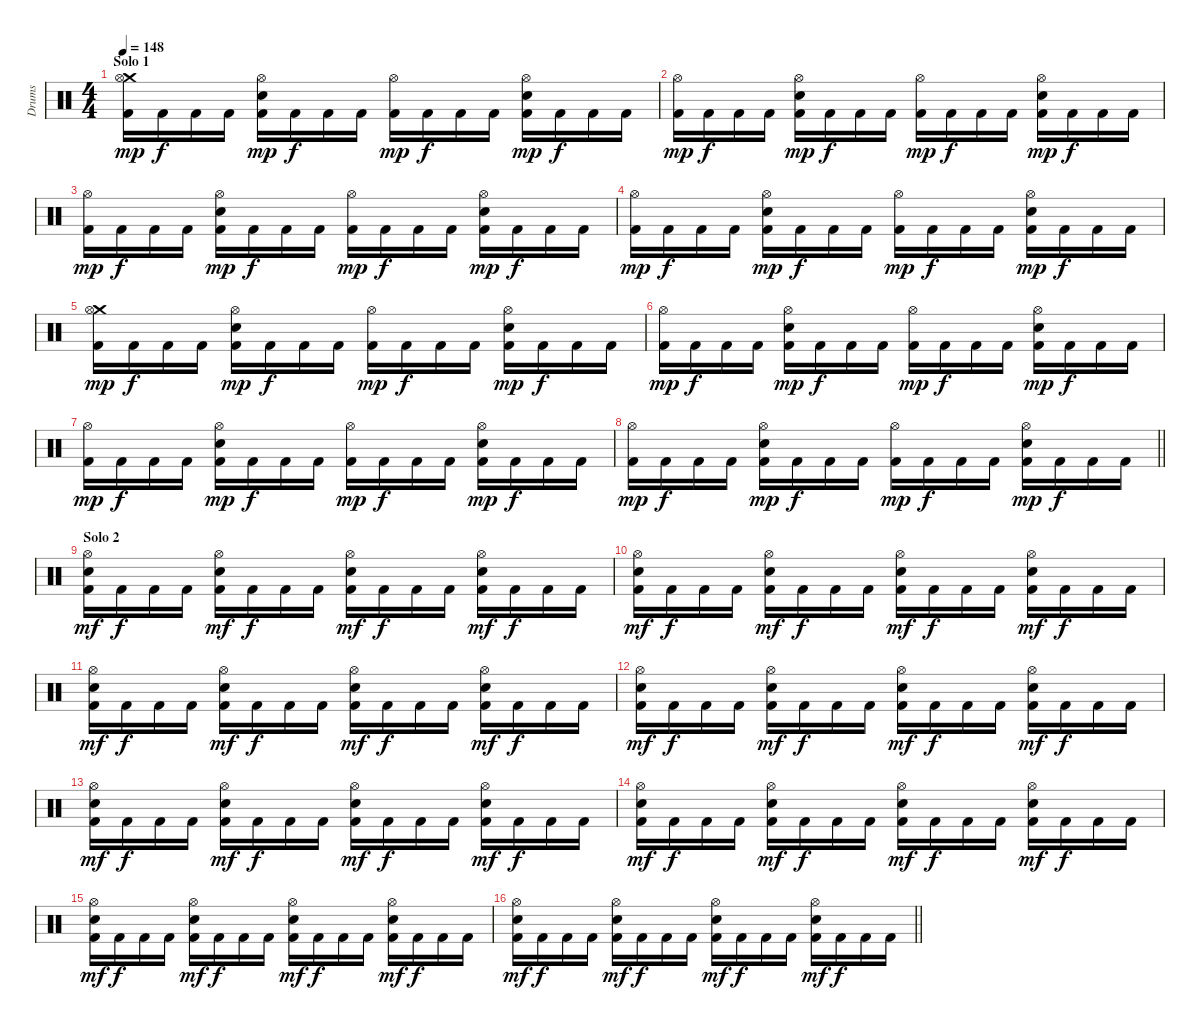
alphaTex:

\track ("Drums" "Drums") {instrument percussion}
\staff {score}
\articulation defaults
\ts (4 4)
\section ("" "Solo 1")
\tempo 148
\clef neutral
\ks c
("Crash medium (hit)" "Hi-Hat (open)" "Kick (hit) 2").16{dy mp} "Kick (hit) 2".16{dy f} "Kick (hit) 2".16 "Kick (hit) 2".16 ("Hi-Hat (open)" "Snare (hit) 2" "Kick (hit) 2").16{dy mp} "Kick (hit) 2".16{dy f} "Kick (hit) 2".16{beam merge} "Kick (hit) 2".16 ("Hi-Hat (open)" "Kick (hit) 2").16{dy mp} "Kick (hit) 2".16{dy f beam merge} "Kick (hit) 2".16 "Kick (hit) 2".16 ("Hi-Hat (open)" "Snare (hit) 2" "Kick (hit) 2").16{dy mp beam merge} "Kick (hit) 2".16{dy f beam merge} "Kick (hit) 2".16 "Kick (hit) 2".16 |
("Hi-Hat (open)" "Kick (hit) 2").16{dy mp} "Kick (hit) 2".16{dy f} "Kick (hit) 2".16 "Kick (hit) 2".16 ("Hi-Hat (open)" "Snare (hit) 2" "Kick (hit) 2").16{dy mp} "Kick (hit) 2".16{dy f} "Kick (hit) 2".16{beam merge} "Kick (hit) 2".16 ("Hi-Hat (open)" "Kick (hit) 2").16{dy mp} "Kick (hit) 2".16{dy f beam merge} "Kick (hit) 2".16 "Kick (hit) 2".16 ("Hi-Hat (open)" "Snare (hit) 2" "Kick (hit) 2").16{dy mp beam merge} "Kick (hit) 2".16{dy f beam merge} "Kick (hit) 2".16 "Kick (hit) 2".16 |
("Hi-Hat (open)" "Kick (hit) 2").16{dy mp} "Kick (hit) 2".16{dy f} "Kick (hit) 2".16 "Kick (hit) 2".16 ("Hi-Hat (open)" "Snare (hit) 2" "Kick (hit) 2").16{dy mp} "Kick (hit) 2".16{dy f} "Kick (hit) 2".16{beam merge} "Kick (hit) 2".16 ("Hi-Hat (open)" "Kick (hit) 2").16{dy mp} "Kick (hit) 2".16{dy f beam merge} "Kick (hit) 2".16 "Kick (hit) 2".16 ("Hi-Hat (open)" "Snare (hit) 2" "Kick (hit) 2").16{dy mp beam merge} "Kick (hit) 2".16{dy f beam merge} "Kick (hit) 2".16 "Kick (hit) 2".16 |
("Hi-Hat (open)" "Kick (hit) 2").16{dy mp} "Kick (hit) 2".16{dy f} "Kick (hit) 2".16 "Kick (hit) 2".16 ("Hi-Hat (open)" "Snare (hit) 2" "Kick (hit) 2").16{dy mp} "Kick (hit) 2".16{dy f} "Kick (hit) 2".16{beam merge} "Kick (hit) 2".16 ("Hi-Hat (open)" "Kick (hit) 2").16{dy mp} "Kick (hit) 2".16{dy f beam merge} "Kick (hit) 2".16 "Kick (hit) 2".16 ("Hi-Hat (open)" "Snare (hit) 2" "Kick (hit) 2").16{dy mp beam merge} "Kick (hit) 2".16{dy f beam merge} "Kick (hit) 2".16 "Kick (hit) 2".16 |
("Crash medium (hit)" "Hi-Hat (open)" "Kick (hit) 2").16{dy mp} "Kick (hit) 2".16{dy f} "Kick (hit) 2".16 "Kick (hit) 2".16 ("Hi-Hat (open)" "Snare (hit) 2" "Kick (hit) 2").16{dy mp} "Kick (hit) 2".16{dy f} "Kick (hit) 2".16{beam merge} "Kick (hit) 2".16 ("Hi-Hat (open)" "Kick (hit) 2").16{dy mp} "Kick (hit) 2".16{dy f beam merge} "Kick (hit) 2".16 "Kick (hit) 2".16 ("Hi-Hat (open)" "Snare (hit) 2" "Kick (hit) 2").16{dy mp beam merge} "Kick (hit) 2".16{dy f beam merge} "Kick (hit) 2".16 "Kick (hit) 2".16 |
("Hi-Hat (open)" "Kick (hit) 2").16{dy mp} "Kick (hit) 2".16{dy f} "Kick (hit) 2".16 "Kick (hit) 2".16 ("Hi-Hat (open)" "Snare (hit) 2" "Kick (hit) 2").16{dy mp} "Kick (hit) 2".16{dy f} "Kick (hit) 2".16{beam merge} "Kick (hit) 2".16 ("Hi-Hat (open)" "Kick (hit) 2").16{dy mp} "Kick (hit) 2".16{dy f beam merge} "Kick (hit) 2".16 "Kick (hit) 2".16 ("Hi-Hat (open)" "Snare (hit) 2" "Kick (hit) 2").16{dy mp beam merge} "Kick (hit) 2".16{dy f beam merge} "Kick (hit) 2".16 "Kick (hit) 2".16 |
("Hi-Hat (open)" "Kick (hit) 2").16{dy mp} "Kick (hit) 2".16{dy f} "Kick (hit) 2".16 "Kick (hit) 2".16 ("Hi-Hat (open)" "Snare (hit) 2" "Kick (hit) 2").16{dy mp} "Kick (hit) 2".16{dy f} "Kick (hit) 2".16{beam merge} "Kick (hit) 2".16 ("Hi-Hat (open)" "Kick (hit) 2").16{dy mp} "Kick (hit) 2".16{dy f beam merge} "Kick (hit) 2".16 "Kick (hit) 2".16 ("Hi-Hat (open)" "Snare (hit) 2" "Kick (hit) 2").16{dy mp beam merge} "Kick (hit) 2".16{dy f beam merge} "Kick (hit) 2".16 "Kick (hit) 2".16 |
\barLineRight lightlight
("Hi-Hat (open)" "Kick (hit) 2").16{dy mp} "Kick (hit) 2".16{dy f} "Kick (hit) 2".16 "Kick (hit) 2".16 ("Hi-Hat (open)" "Snare (hit) 2" "Kick (hit) 2").16{dy mp} "Kick (hit) 2".16{dy f} "Kick (hit) 2".16{beam merge} "Kick (hit) 2".16 ("Hi-Hat (open)" "Kick (hit) 2").16{dy mp} "Kick (hit) 2".16{dy f beam merge} "Kick (hit) 2".16 "Kick (hit) 2".16 ("Hi-Hat (open)" "Snare (hit) 2" "Kick (hit) 2").16{dy mp beam merge} "Kick (hit) 2".16{dy f beam merge} "Kick (hit) 2".16 "Kick (hit) 2".16 |
\section ("" "Solo 2")
("Hi-Hat (open)" "Snare (hit) 2" "Kick (hit) 2").16{dy mf} "Kick (hit) 2".16{dy f} "Kick (hit) 2".16 "Kick (hit) 2".16 ("Hi-Hat (open)" "Snare (hit) 2" "Kick (hit) 2").16{dy mf} "Kick (hit) 2".16{dy f beam merge} "Kick (hit) 2".16 "Kick (hit) 2".16 ("Hi-Hat (open)" "Snare (hit) 2" "Kick (hit) 2").16{dy mf} "Kick (hit) 2".16{dy f beam merge} "Kick (hit) 2".16 "Kick (hit) 2".16 ("Hi-Hat (open)" "Snare (hit) 2" "Kick (hit) 2").16{dy mf} "Kick (hit) 2".16{dy f beam merge} "Kick (hit) 2".16 "Kick (hit) 2".16 |
("Hi-Hat (open)" "Snare (hit) 2" "Kick (hit) 2").16{dy mf} "Kick (hit) 2".16{dy f} "Kick (hit) 2".16 "Kick (hit) 2".16 ("Hi-Hat (open)" "Snare (hit) 2" "Kick (hit) 2").16{dy mf} "Kick (hit) 2".16{dy f beam merge} "Kick (hit) 2".16 "Kick (hit) 2".16 ("Hi-Hat (open)" "Snare (hit) 2" "Kick (hit) 2").16{dy mf} "Kick (hit) 2".16{dy f beam merge} "Kick (hit) 2".16 "Kick (hit) 2".16 ("Hi-Hat (open)" "Snare (hit) 2" "Kick (hit) 2").16{dy mf} "Kick (hit) 2".16{dy f beam merge} "Kick (hit) 2".16 "Kick (hit) 2".16 |
("Hi-Hat (open)" "Snare (hit) 2" "Kick (hit) 2").16{dy mf} "Kick (hit) 2".16{dy f} "Kick (hit) 2".16 "Kick (hit) 2".16 ("Hi-Hat (open)" "Snare (hit) 2" "Kick (hit) 2").16{dy mf} "Kick (hit) 2".16{dy f beam merge} "Kick (hit) 2".16 "Kick (hit) 2".16 ("Hi-Hat (open)" "Snare (hit) 2" "Kick (hit) 2").16{dy mf} "Kick (hit) 2".16{dy f beam merge} "Kick (hit) 2".16 "Kick (hit) 2".16 ("Hi-Hat (open)" "Snare (hit) 2" "Kick (hit) 2").16{dy mf} "Kick (hit) 2".16{dy f beam merge} "Kick (hit) 2".16 "Kick (hit) 2".16 |
("Hi-Hat (open)" "Snare (hit) 2" "Kick (hit) 2").16{dy mf} "Kick (hit) 2".16{dy f} "Kick (hit) 2".16 "Kick (hit) 2".16 ("Hi-Hat (open)" "Snare (hit) 2" "Kick (hit) 2").16{dy mf} "Kick (hit) 2".16{dy f beam merge} "Kick (hit) 2".16 "Kick (hit) 2".16 ("Hi-Hat (open)" "Snare (hit) 2" "Kick (hit) 2").16{dy mf} "Kick (hit) 2".16{dy f beam merge} "Kick (hit) 2".16 "Kick (hit) 2".16 ("Hi-Hat (open)" "Snare (hit) 2" "Kick (hit) 2").16{dy mf} "Kick (hit) 2".16{dy f beam merge} "Kick (hit) 2".16 "Kick (hit) 2".16 |
("Hi-Hat (open)" "Snare (hit) 2" "Kick (hit) 2").16{dy mf} "Kick (hit) 2".16{dy f} "Kick (hit) 2".16 "Kick (hit) 2".16 ("Hi-Hat (open)" "Snare (hit) 2" "Kick (hit) 2").16{dy mf} "Kick (hit) 2".16{dy f beam merge} "Kick (hit) 2".16 "Kick (hit) 2".16 ("Hi-Hat (open)" "Snare (hit) 2" "Kick (hit) 2").16{dy mf} "Kick (hit) 2".16{dy f beam merge} "Kick (hit) 2".16 "Kick (hit) 2".16 ("Hi-Hat (open)" "Snare (hit) 2" "Kick (hit) 2").16{dy mf} "Kick (hit) 2".16{dy f beam merge} "Kick (hit) 2".16 "Kick (hit) 2".16 |
("Hi-Hat (open)" "Snare (hit) 2" "Kick (hit) 2").16{dy mf} "Kick (hit) 2".16{dy f} "Kick (hit) 2".16 "Kick (hit) 2".16 ("Hi-Hat (open)" "Snare (hit) 2" "Kick (hit) 2").16{dy mf} "Kick (hit) 2".16{dy f beam merge} "Kick (hit) 2".16 "Kick (hit) 2".16 ("Hi-Hat (open)" "Snare (hit) 2" "Kick (hit) 2").16{dy mf} "Kick (hit) 2".16{dy f beam merge} "Kick (hit) 2".16 "Kick (hit) 2".16 ("Hi-Hat (open)" "Snare (hit) 2" "Kick (hit) 2").16{dy mf} "Kick (hit) 2".16{dy f beam merge} "Kick (hit) 2".16 "Kick (hit) 2".16 |
("Hi-Hat (open)" "Snare (hit) 2" "Kick (hit) 2").16{dy mf} "Kick (hit) 2".16{dy f} "Kick (hit) 2".16 "Kick (hit) 2".16 ("Hi-Hat (open)" "Snare (hit) 2" "Kick (hit) 2").16{dy mf} "Kick (hit) 2".16{dy f beam merge} "Kick (hit) 2".16 "Kick (hit) 2".16 ("Hi-Hat (open)" "Snare (hit) 2" "Kick (hit) 2").16{dy mf} "Kick (hit) 2".16{dy f beam merge} "Kick (hit) 2".16 "Kick (hit) 2".16 ("Hi-Hat (open)" "Snare (hit) 2" "Kick (hit) 2").16{dy mf} "Kick (hit) 2".16{dy f beam merge} "Kick (hit) 2".16 "Kick (hit) 2".16 |
\barLineRight lightlight
("Hi-Hat (open)" "Snare (hit) 2" "Kick (hit) 2").16{dy mf} "Kick (hit) 2".16{dy f} "Kick (hit) 2".16 "Kick (hit) 2".16 ("Hi-Hat (open)" "Snare (hit) 2" "Kick (hit) 2").16{dy mf} "Kick (hit) 2".16{dy f beam merge} "Kick (hit) 2".16 "Kick (hit) 2".16 ("Hi-Hat (open)" "Snare (hit) 2" "Kick (hit) 2").16{dy mf} "Kick (hit) 2".16{dy f beam merge} "Kick (hit) 2".16 "Kick (hit) 2".16 ("Hi-Hat (open)" "Snare (hit) 2" "Kick (hit) 2").16{dy mf} "Kick (hit) 2".16{dy f beam merge} "Kick (hit) 2".16 "Kick (hit) 2".16
